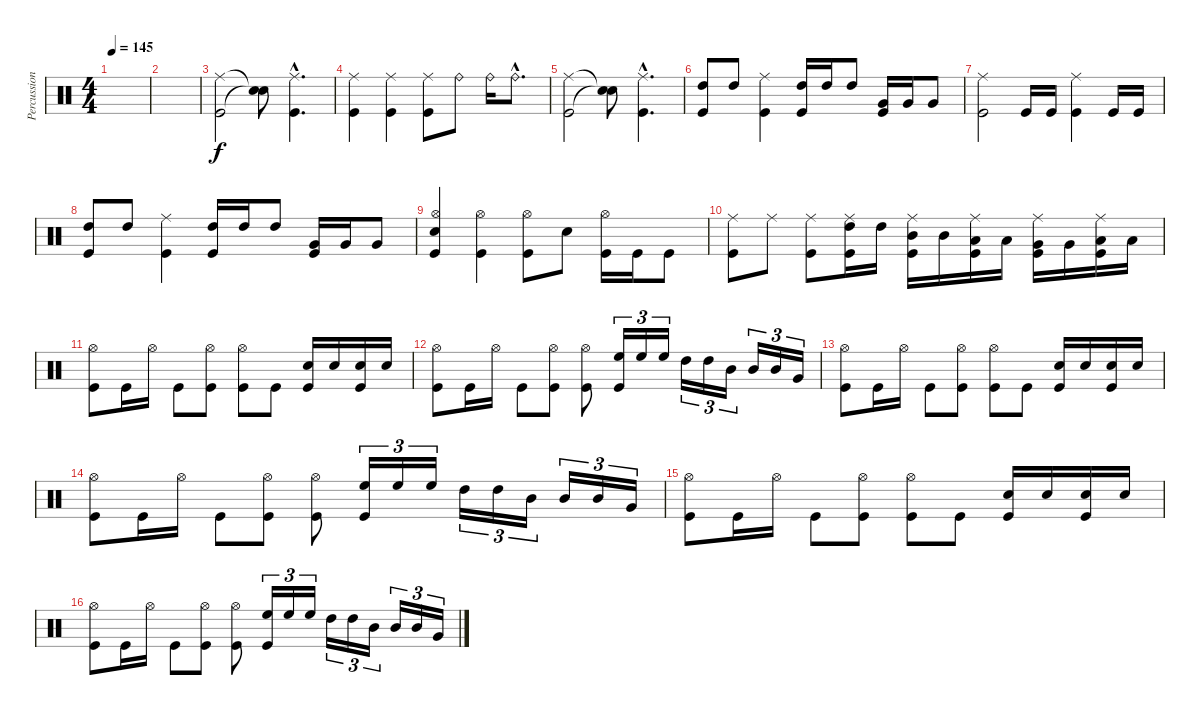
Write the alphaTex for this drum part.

\track ("Percussions" "Percussion") {instrument percussion}
\staff {score}
\articulation defaults
\ts (4 4)
\tempo 145
\clef neutral
\ks c
|
|
("Ride (middle)" "Kick (hit)").2 ("Snare (hit)"{t} "Snare (hit)"{t}).8 ("Ride (middle)"{hac} "Kick (hit)"{hac}).4{d} |
("Ride (middle)" "Kick (hit)").4 ("Ride (middle)" "Kick (hit)").4 ("Ride (middle)" "Kick (hit)").8 "Ride (bell)".8 "Ride (bell)".16 "Ride (bell)"{hac}.8{d} |
("Ride (middle)" "Kick (hit)").2 ("Snare (hit)"{t} "Snare (hit)"{t}).8 ("Ride (middle)"{hac} "Kick (hit)"{hac}).4{d} |
("High Tom (hit)" "Kick (hit)").8 "High Tom (hit)".8 ("Ride (middle)" "Kick (hit)").4 ("High Tom (hit)" "Kick (hit)").16 "High Tom (hit)".16 "High Tom (hit)".8 ("Very Low Tom (hit)" "Kick (hit)").16 "Very Low Tom (hit)".16 "Very Low Tom (hit)".8 |
("Ride (middle)" "Kick (hit)").2 "Kick (hit)".16 "Kick (hit)".16 ("Ride (middle)" "Kick (hit)").4 "Kick (hit)".16 "Kick (hit)".16 |
("High Tom (hit)" "Kick (hit)").8 "High Tom (hit)".8 ("Ride (middle)" "Kick (hit)").4 ("High Tom (hit)" "Kick (hit)").16 "High Tom (hit)".16 "High Tom (hit)".8 ("Very Low Tom (hit)" "Kick (hit)").16 "Very Low Tom (hit)".16 "Very Low Tom (hit)".8 |
("Hi-Hat (open)" "Electric Snare (hit)" "Kick (hit)").4 ("Hi-Hat (open)" "Kick (hit)").4 ("Hi-Hat (open)" "Kick (hit)").8 "Electric Snare (hit)".8 ("Hi-Hat (open)" "Kick (hit)").16 "Kick (hit)".16 "Kick (hit)".8 |
("Ride (middle)" "Kick (hit)").8 "Ride (middle)".8 ("Ride (middle)" "Kick (hit)").8 ("Ride (middle)" "High Tom (hit)" "Kick (hit)").16 "High Tom (hit)".16 ("Ride (middle)" "Mid Tom (hit)" "Kick (hit)").16 "Mid Tom (hit)".16 ("Ride (middle)" "Low Tom (hit)" "Kick (hit)").16 "Low Tom (hit)".16 ("Ride (middle)" "Very Low Tom (hit)" "Kick (hit)").16 "Very Low Tom (hit)".16 ("Ride (middle)" "Low Floor Tom (hit)" "Kick (hit)").16 "Low Floor Tom (hit)".16 |
("Hi-Hat (open)" "Kick (hit)").8 "Kick (hit)".16 "Hi-Hat (open)".16 "Kick (hit)".8 ("Hi-Hat (open)" "Kick (hit)").8 ("Hi-Hat (open)" "Kick (hit)").8 "Kick (hit)".8 ("Electric Snare (hit)" "Kick (hit)").16 "Electric Snare (hit)".16 ("Electric Snare (hit)" "Kick (hit)").16 "Electric Snare (hit)".16 |
("Hi-Hat (open)" "Kick (hit)").8 "Kick (hit)".16 "Hi-Hat (open)".16 "Kick (hit)".8 ("Hi-Hat (open)" "Kick (hit)").8 ("Hi-Hat (open)" "Kick (hit)").8 ("High Floor Tom (hit)" "Kick (hit)").16{tu (3 2)} "High Floor Tom (hit)".16{tu (3 2)} "High Floor Tom (hit)".16{tu (3 2)} "High Tom (hit)".16{tu (3 2)} "High Tom (hit)".16{tu (3 2)} "Mid Tom (hit)".16{tu (3 2)} "Mid Tom (hit)".16{tu (3 2)} "Mid Tom (hit)".16{tu (3 2)} "Very Low Tom (hit)".16{tu (3 2)} |
("Hi-Hat (open)" "Kick (hit)").8 "Kick (hit)".16 "Hi-Hat (open)".16 "Kick (hit)".8 ("Hi-Hat (open)" "Kick (hit)").8 ("Hi-Hat (open)" "Kick (hit)").8 "Kick (hit)".8 ("Electric Snare (hit)" "Kick (hit)").16 "Electric Snare (hit)".16 ("Electric Snare (hit)" "Kick (hit)").16 "Electric Snare (hit)".16 |
("Hi-Hat (open)" "Kick (hit)").8 "Kick (hit)".16 "Hi-Hat (open)".16 "Kick (hit)".8 ("Hi-Hat (open)" "Kick (hit)").8 ("Hi-Hat (open)" "Kick (hit)").8 ("High Floor Tom (hit)" "Kick (hit)").16{tu (3 2)} "High Floor Tom (hit)".16{tu (3 2)} "High Floor Tom (hit)".16{tu (3 2)} "High Tom (hit)".16{tu (3 2)} "High Tom (hit)".16{tu (3 2)} "Mid Tom (hit)".16{tu (3 2)} "Mid Tom (hit)".16{tu (3 2)} "Mid Tom (hit)".16{tu (3 2)} "Very Low Tom (hit)".16{tu (3 2)} |
("Hi-Hat (open)" "Kick (hit)").8 "Kick (hit)".16 "Hi-Hat (open)".16 "Kick (hit)".8 ("Hi-Hat (open)" "Kick (hit)").8 ("Hi-Hat (open)" "Kick (hit)").8 "Kick (hit)".8 ("Electric Snare (hit)" "Kick (hit)").16 "Electric Snare (hit)".16 ("Electric Snare (hit)" "Kick (hit)").16 "Electric Snare (hit)".16 |
("Hi-Hat (open)" "Kick (hit)").8 "Kick (hit)".16 "Hi-Hat (open)".16 "Kick (hit)".8 ("Hi-Hat (open)" "Kick (hit)").8 ("Hi-Hat (open)" "Kick (hit)").8 ("High Floor Tom (hit)" "Kick (hit)").16{tu (3 2)} "High Floor Tom (hit)".16{tu (3 2)} "High Floor Tom (hit)".16{tu (3 2)} "High Tom (hit)".16{tu (3 2)} "High Tom (hit)".16{tu (3 2)} "Mid Tom (hit)".16{tu (3 2)} "Mid Tom (hit)".16{tu (3 2)} "Mid Tom (hit)".16{tu (3 2)} "Very Low Tom (hit)".16{tu (3 2)}
